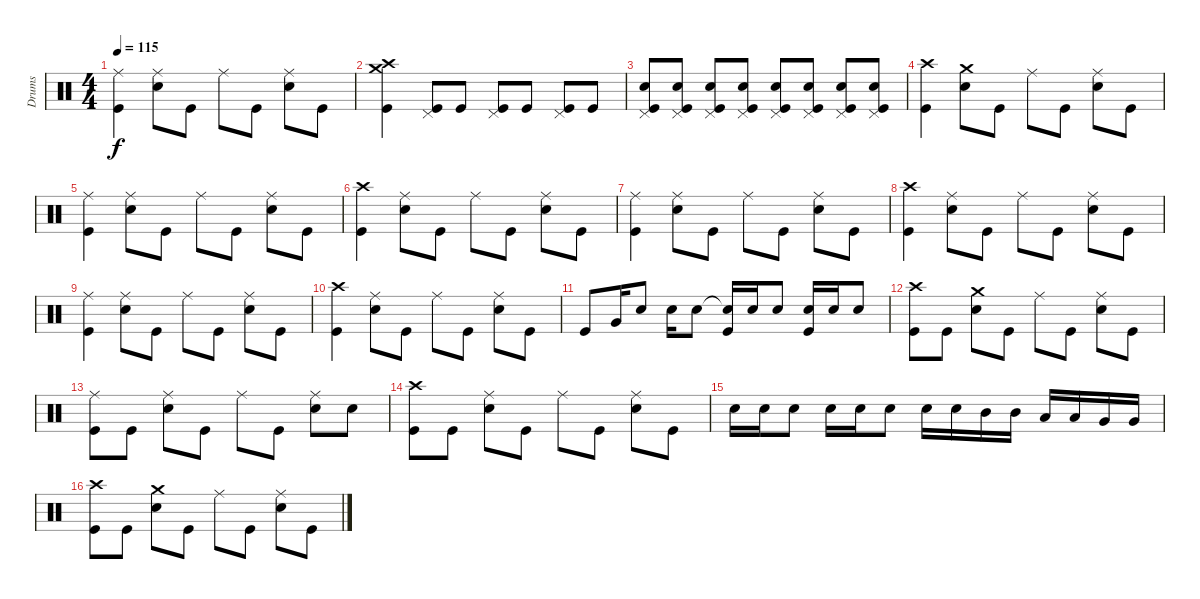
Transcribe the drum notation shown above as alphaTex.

\track ("Drums" "Drums") {instrument percussion}
\staff {score}
\articulation defaults
\ts (4 4)
\tempo 115
\clef neutral
\ks c
("Ride (middle)" "Kick (hit)").4{dy f} ("Ride (middle)" "Snare (hit) 2").8 "Kick (hit)".8 "Ride (middle)".8 "Kick (hit)".8 ("Ride (middle)" "Snare (hit) 2").8 "Kick (hit)".8 |
("Crash high (hit)" "Kick (hit)" "Crash medium (hit)").4 ("Pedal Hi-Hat (hit)" "Kick (hit)").8 "Kick (hit)".8 ("Pedal Hi-Hat (hit)" "Kick (hit)").8 "Kick (hit)".8 ("Pedal Hi-Hat (hit)" "Kick (hit)").8 "Kick (hit)".8 |
("Pedal Hi-Hat (hit)" "Kick (hit)" "Snare (hit) 2").8 ("Pedal Hi-Hat (hit)" "Kick (hit)" "Snare (hit) 2").8 ("Pedal Hi-Hat (hit)" "Kick (hit)" "Snare (hit) 2").8 ("Pedal Hi-Hat (hit)" "Kick (hit)" "Snare (hit) 2").8 ("Pedal Hi-Hat (hit)" "Kick (hit)" "Snare (hit) 2").8 ("Pedal Hi-Hat (hit)" "Kick (hit)" "Snare (hit) 2").8 ("Pedal Hi-Hat (hit)" "Kick (hit)" "Snare (hit) 2").8 ("Pedal Hi-Hat (hit)" "Kick (hit)" "Snare (hit) 2").8 |
("Crash high (hit)" "Kick (hit)").4 ("Crash medium (hit)" "Snare (hit) 2").8 "Kick (hit)".8 "Ride (middle)".8 "Kick (hit)".8 ("Ride (middle)" "Snare (hit) 2").8 "Kick (hit)".8 |
("Ride (middle)" "Kick (hit)").4 ("Ride (middle)" "Snare (hit) 2").8 "Kick (hit)".8 "Ride (middle)".8 "Kick (hit)".8 ("Ride (middle)" "Snare (hit) 2").8 "Kick (hit)".8 |
("Crash high (hit)" "Kick (hit)").4 ("Ride (middle)" "Snare (hit) 2").8 "Kick (hit)".8 "Ride (middle)".8 "Kick (hit)".8 ("Ride (middle)" "Snare (hit) 2").8 "Kick (hit)".8 |
("Ride (middle)" "Kick (hit)").4 ("Ride (middle)" "Snare (hit) 2").8 "Kick (hit)".8 "Ride (middle)".8 "Kick (hit)".8 ("Ride (middle)" "Snare (hit) 2").8 "Kick (hit)".8 |
("Crash high (hit)" "Kick (hit)").4 ("Ride (middle)" "Snare (hit) 2").8 "Kick (hit)".8 "Ride (middle)".8 "Kick (hit)".8 ("Ride (middle)" "Snare (hit) 2").8 "Kick (hit)".8 |
("Ride (middle)" "Kick (hit)").4 ("Ride (middle)" "Snare (hit) 2").8 "Kick (hit)".8 "Ride (middle)".8 "Kick (hit)".8 ("Ride (middle)" "Snare (hit) 2").8 "Kick (hit)".8 |
("Crash high (hit)" "Kick (hit)").4 ("Ride (middle)" "Snare (hit) 2").8 "Kick (hit)".8 "Ride (middle)".8 "Kick (hit)".8 ("Ride (middle)" "Snare (hit) 2").8 "Kick (hit)".8 |
"Kick (hit)".8 "Very Low Tom (hit)".16 "Snare (hit) 2".8 "Snare (hit) 2".16 "Snare (hit) 2".8 ("Snare (hit) 2"{t} "Kick (hit)").16 "Snare (hit) 2".16 "Snare (hit) 2".8 ("Snare (hit) 2" "Kick (hit)").16 "Snare (hit) 2".16 "Snare (hit) 2".8 |
("Crash high (hit)" "Kick (hit)").8 "Kick (hit)".8 ("Crash medium (hit)" "Snare (hit) 2").8 "Kick (hit)".8 "Ride (middle)".8 "Kick (hit)".8 ("Ride (middle)" "Snare (hit) 2").8 "Kick (hit)".8 |
("Ride (middle)" "Kick (hit)").8 "Kick (hit)".8 ("Ride (middle)" "Snare (hit) 2").8 "Kick (hit)".8 "Ride (middle)".8 "Kick (hit)".8 ("Ride (middle)" "Snare (hit) 2").8 "Snare (hit) 2".8 |
("Crash high (hit)" "Kick (hit)").8 "Kick (hit)".8 ("Ride (middle)" "Snare (hit) 2").8 "Kick (hit)".8 "Ride (middle)".8 "Kick (hit)".8 ("Ride (middle)" "Snare (hit) 2").8 "Kick (hit)".8 |
"Snare (hit) 2".16 "Snare (hit) 2".16 "Snare (hit) 2".8 "Snare (hit) 2".16 "Snare (hit) 2".16 "Snare (hit) 2".8 "Snare (hit) 2".16 "Snare (hit) 2".16 "Mid Tom (hit)".16 "Mid Tom (hit)".16 "Low Tom (hit)".16 "Low Tom (hit)".16 "Very Low Tom (hit)".16 "Very Low Tom (hit)".16 |
("Crash high (hit)" "Kick (hit)").8 "Kick (hit)".8 ("Crash medium (hit)" "Snare (hit) 2").8 "Kick (hit)".8 "Ride (middle)".8 "Kick (hit)".8 ("Ride (middle)" "Snare (hit) 2").8 "Kick (hit)".8
